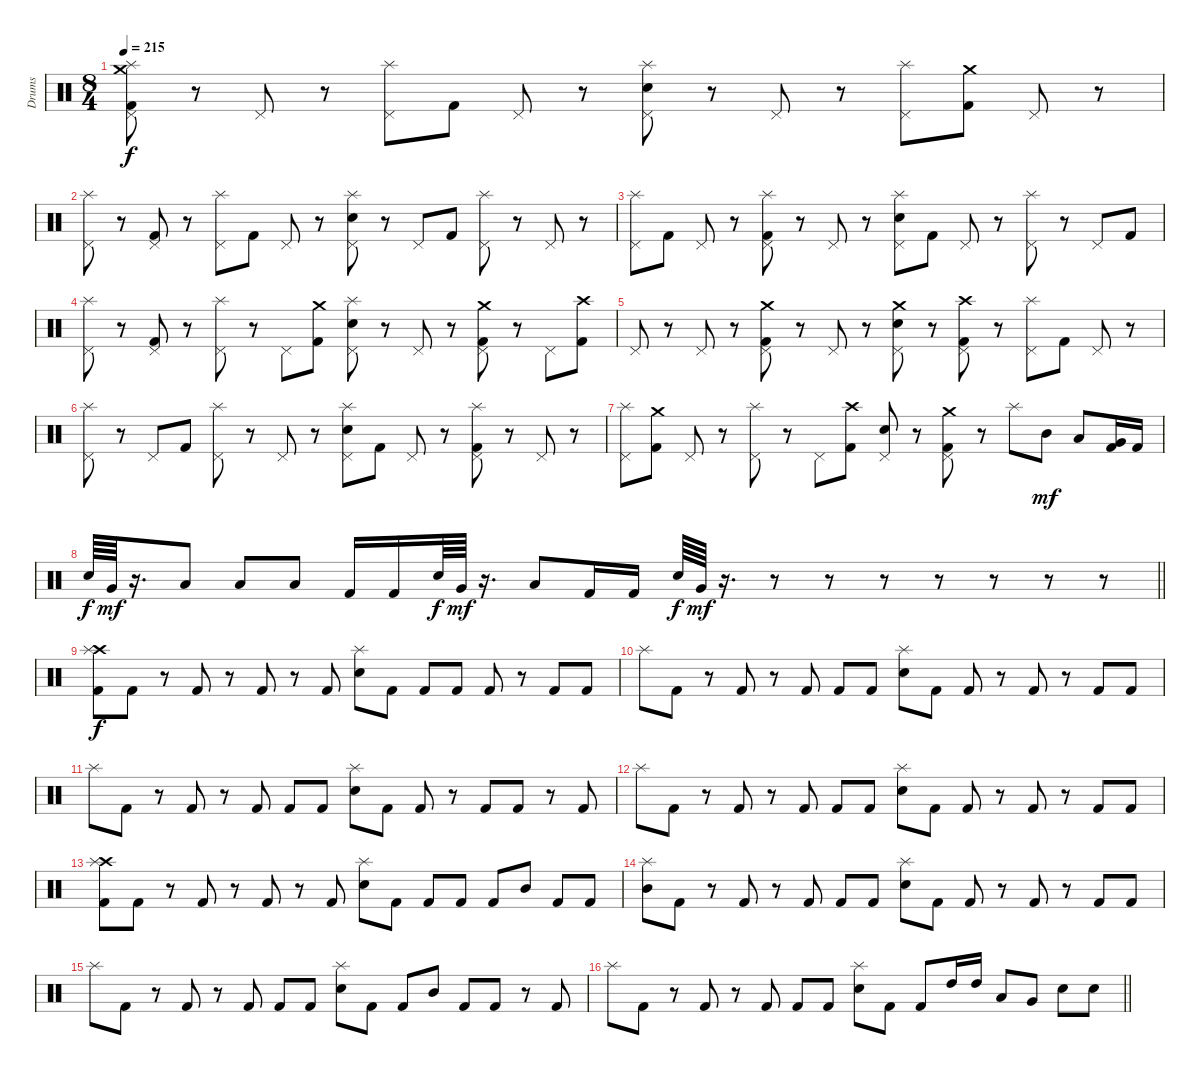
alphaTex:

\track ("Drums" "Drums") {instrument percussion}
\staff {score}
\articulation defaults
\ts (8 4)
\section ("" "")
\tempo 215
\clef neutral
\ks c
("Splash (hit)" "Crash medium (hit)" "Pedal Hi-Hat (hit)" "Kick (hit) 2").8{dy f} r.8 "Pedal Hi-Hat (hit)".8 r.8 ("Splash (hit)" "Pedal Hi-Hat (hit)").8 "Kick (hit) 2".8 "Pedal Hi-Hat (hit)".8 r.8 ("Splash (hit)" "Pedal Hi-Hat (hit)" "Electric Snare (hit)").8 r.8 "Pedal Hi-Hat (hit)".8 r.8 ("Splash (hit)" "Pedal Hi-Hat (hit)").8 ("Crash medium (hit)" "Kick (hit) 2").8 "Pedal Hi-Hat (hit)".8 r.8 |
("Splash (hit)" "Pedal Hi-Hat (hit)").8 r.8 ("Pedal Hi-Hat (hit)" "Kick (hit) 2").8 r.8 ("Splash (hit)" "Pedal Hi-Hat (hit)").8 "Kick (hit) 2".8 "Pedal Hi-Hat (hit)".8 r.8 ("Splash (hit)" "Pedal Hi-Hat (hit)" "Electric Snare (hit)").8 r.8 "Pedal Hi-Hat (hit)".8 "Kick (hit) 2".8 ("Splash (hit)" "Pedal Hi-Hat (hit)").8 r.8 "Pedal Hi-Hat (hit)".8 r.8 |
("Splash (hit)" "Pedal Hi-Hat (hit)").8 "Kick (hit) 2".8 "Pedal Hi-Hat (hit)".8 r.8 ("Splash (hit)" "Pedal Hi-Hat (hit)" "Kick (hit) 2").8 r.8 "Pedal Hi-Hat (hit)".8 r.8 ("Splash (hit)" "Pedal Hi-Hat (hit)" "Electric Snare (hit)").8 "Kick (hit) 2".8 "Pedal Hi-Hat (hit)".8 r.8 ("Splash (hit)" "Pedal Hi-Hat (hit)").8 r.8 "Pedal Hi-Hat (hit)".8 "Kick (hit) 2".8 |
("Splash (hit)" "Pedal Hi-Hat (hit)").8 r.8 ("Pedal Hi-Hat (hit)" "Kick (hit) 2").8 r.8 ("Splash (hit)" "Pedal Hi-Hat (hit)").8 r.8 "Pedal Hi-Hat (hit)".8 ("Crash medium (hit)" "Kick (hit) 2").8 ("Splash (hit)" "Pedal Hi-Hat (hit)" "Electric Snare (hit)").8 r.8 "Pedal Hi-Hat (hit)".8 r.8 ("Crash medium (hit)" "Pedal Hi-Hat (hit)" "Kick (hit) 2").8 r.8 "Pedal Hi-Hat (hit)".8 ("Crash high (hit)" "Kick (hit) 2").8 |
"Pedal Hi-Hat (hit)".8 r.8 "Pedal Hi-Hat (hit)".8 r.8 ("Crash medium (hit)" "Pedal Hi-Hat (hit)" "Kick (hit) 2").8 r.8 "Pedal Hi-Hat (hit)".8 r.8 ("Crash medium (hit)" "Pedal Hi-Hat (hit)" "Electric Snare (hit)").8 r.8 ("Crash high (hit)" "Pedal Hi-Hat (hit)" "Kick (hit) 2").8 r.8 ("Splash (hit)" "Pedal Hi-Hat (hit)").8 "Kick (hit) 2".8 "Pedal Hi-Hat (hit)".8 r.8 |
("Splash (hit)" "Pedal Hi-Hat (hit)").8 r.8 "Pedal Hi-Hat (hit)".8 "Kick (hit) 2".8 ("Splash (hit)" "Pedal Hi-Hat (hit)").8 r.8 "Pedal Hi-Hat (hit)".8 r.8 ("Splash (hit)" "Pedal Hi-Hat (hit)" "Electric Snare (hit)").8 "Kick (hit) 2".8 "Pedal Hi-Hat (hit)".8 r.8 ("Splash (hit)" "Pedal Hi-Hat (hit)" "Kick (hit) 2").8 r.8 "Pedal Hi-Hat (hit)".8 r.8 |
("Splash (hit)" "Pedal Hi-Hat (hit)").8 ("Crash medium (hit)" "Kick (hit) 2").8 "Pedal Hi-Hat (hit)".8 r.8 ("Splash (hit)" "Pedal Hi-Hat (hit)").8 r.8 "Pedal Hi-Hat (hit)".8 ("Crash high (hit)" "Kick (hit) 2").8 ("Pedal Hi-Hat (hit)" "Electric Snare (hit)").8 r.8 ("Crash medium (hit)" "Pedal Hi-Hat (hit)" "Kick (hit) 2").8 r.8 "Splash (hit)".8 "Mid Tom (hit)".8{dy mf} "Low Tom (hit)".8 ("Very Low Tom (hit)" "Kick (hit) 2").16 "Kick (hit) 2".16 |
\barLineRight lightlight "Electric Snare (hit)".64{dy f} "Very Low Tom (hit)".64{dy mf}
r.16{d} "Low Tom (hit)".8 "Low Tom (hit)".8 "Low Tom (hit)".8 "Kick (hit) 2".16 "Kick (hit) 2".16 "Electric Snare (hit)".64{dy f} "Very Low Tom (hit)".64{dy mf} r.16{d} "Low Tom (hit)".8 "Kick (hit) 2".16 "Kick (hit) 2".16 "Electric Snare (hit)".64{dy f} "Very Low Tom (hit)".64{dy mf} r.16{d} r.8 r.8 r.8 r.8 r.8 r.8 r.8 |
\section ("" "")
("Crash high (hit)" "Splash (hit)" "Kick (hit) 2").8{dy f} "Kick (hit) 2".8 r.8 "Kick (hit) 2".8 r.8 "Kick (hit) 2".8 r.8 "Kick (hit) 2".8 ("Splash (hit)" "Electric Snare (hit)").8 "Kick (hit) 2".8 "Kick (hit) 2".8 "Kick (hit) 2".8 "Kick (hit) 2".8 r.8 "Kick (hit) 2".8 "Kick (hit) 2".8 |
"Splash (hit)".8 "Kick (hit) 2".8 r.8 "Kick (hit) 2".8 r.8 "Kick (hit) 2".8 "Kick (hit) 2".8 "Kick (hit) 2".8 ("Splash (hit)" "Electric Snare (hit)").8 "Kick (hit) 2".8 "Kick (hit) 2".8 r.8 "Kick (hit) 2".8 r.8 "Kick (hit) 2".8 "Kick (hit) 2".8 |
"Splash (hit)".8 "Kick (hit) 2".8 r.8 "Kick (hit) 2".8 r.8 "Kick (hit) 2".8 "Kick (hit) 2".8 "Kick (hit) 2".8 ("Splash (hit)" "Electric Snare (hit)").8 "Kick (hit) 2".8 "Kick (hit) 2".8 r.8 "Kick (hit) 2".8 "Kick (hit) 2".8 r.8 "Kick (hit) 2".8 |
"Splash (hit)".8 "Kick (hit) 2".8 r.8 "Kick (hit) 2".8 r.8 "Kick (hit) 2".8 "Kick (hit) 2".8 "Kick (hit) 2".8 ("Splash (hit)" "Electric Snare (hit)").8 "Kick (hit) 2".8 "Kick (hit) 2".8 r.8 "Kick (hit) 2".8 r.8 "Kick (hit) 2".8 "Kick (hit) 2".8 |
("Crash high (hit)" "Splash (hit)" "Kick (hit) 2").8 "Kick (hit) 2".8 r.8 "Kick (hit) 2".8 r.8 "Kick (hit) 2".8 r.8 "Kick (hit) 2".8 ("Splash (hit)" "Electric Snare (hit)").8 "Kick (hit) 2".8 "Kick (hit) 2".8 "Kick (hit) 2".8 "Kick (hit) 2".8 "Mid Tom (hit)".8 "Kick (hit) 2".8 "Kick (hit) 2".8 |
("Splash (hit)" "Mid Tom (hit)").8 "Kick (hit) 2".8 r.8 "Kick (hit) 2".8 r.8 "Kick (hit) 2".8 "Kick (hit) 2".8 "Kick (hit) 2".8 ("Splash (hit)" "Electric Snare (hit)").8 "Kick (hit) 2".8 "Kick (hit) 2".8 r.8 "Kick (hit) 2".8 r.8 "Kick (hit) 2".8 "Kick (hit) 2".8 |
"Splash (hit)".8 "Kick (hit) 2".8 r.8 "Kick (hit) 2".8 r.8 "Kick (hit) 2".8 "Kick (hit) 2".8 "Kick (hit) 2".8 ("Splash (hit)" "Electric Snare (hit)").8 "Kick (hit) 2".8 "Kick (hit) 2".8 "Mid Tom (hit)".8 "Kick (hit) 2".8 "Kick (hit) 2".8 r.8 "Kick (hit) 2".8 |
\barLineRight lightlight "Splash (hit)".8 "Kick (hit) 2".8
r.8 "Kick (hit) 2".8 r.8 "Kick (hit) 2".8 "Kick (hit) 2".8 "Kick (hit) 2".8 ("Splash (hit)" "Electric Snare (hit)").8 "Kick (hit) 2".8 "Kick (hit) 2".8 "High Tom (hit)".16 "High Tom (hit)".16 "Low Tom (hit)".8 "Very Low Tom (hit)".8 "Electric Snare (hit)".8 "Electric Snare (hit)".8
